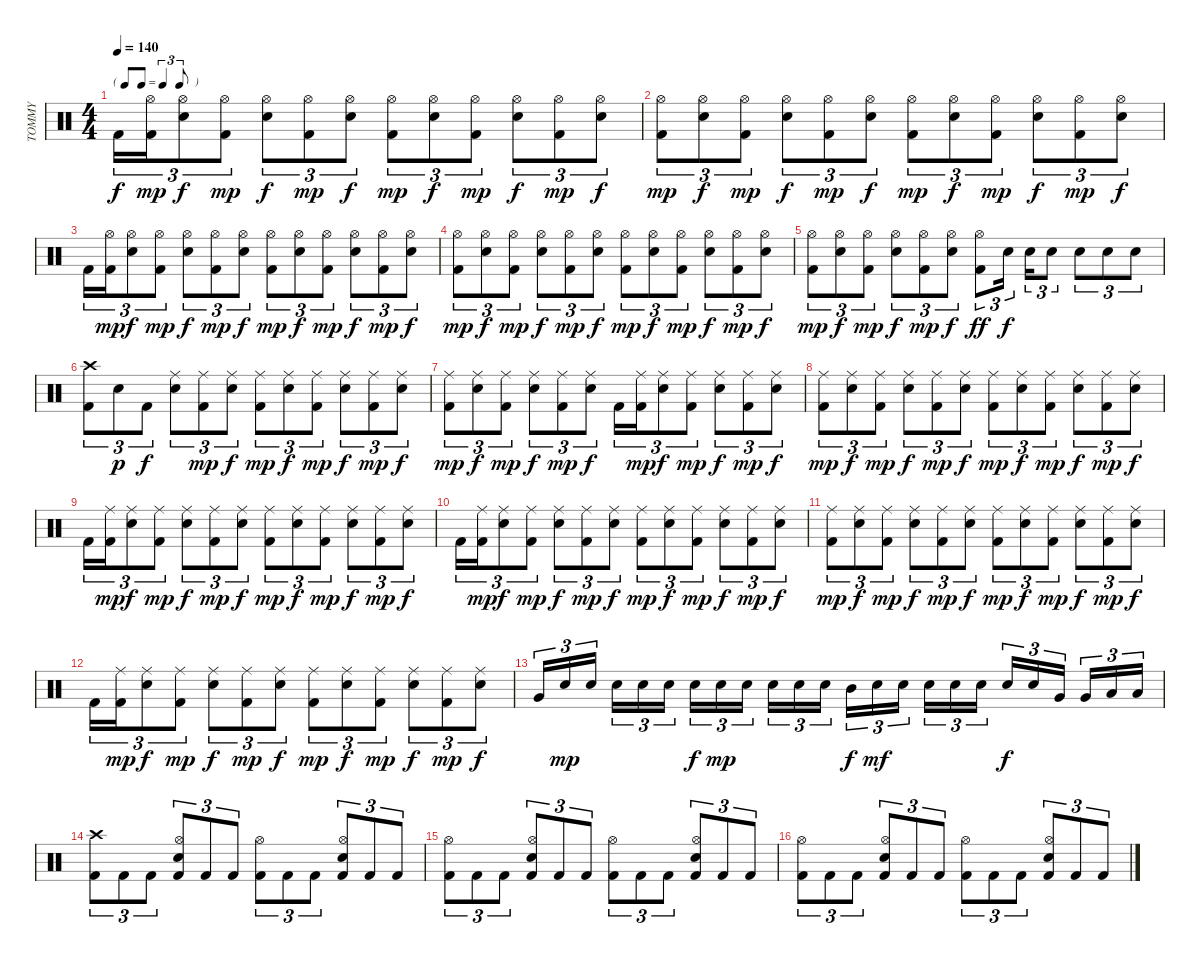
\track ("TOMMY" "TOMMY") {instrument percussion}
\staff {score}
\articulation defaults
\ts (4 4)
\tf triplet8th
\tempo 140
\clef neutral
\ks c "Kick (hit) 2".16{tu (3 2) dy f}
("Kick (hit) 2" "Hi-Hat (open)").16{tu (3 2) dy mp} ("Snare (hit) 2" "Hi-Hat (open)").8{tu (3 2) dy f} ("Kick (hit) 2" "Hi-Hat (open)").8{tu (3 2) dy mp} ("Snare (hit) 2" "Hi-Hat (open)").8{tu (3 2) dy f} ("Kick (hit) 2" "Hi-Hat (open)").8{tu (3 2) dy mp} ("Snare (hit) 2" "Hi-Hat (open)").8{tu (3 2) dy f} ("Kick (hit) 2" "Hi-Hat (open)").8{tu (3 2) dy mp} ("Snare (hit) 2" "Hi-Hat (open)").8{tu (3 2) dy f} ("Kick (hit) 2" "Hi-Hat (open)").8{tu (3 2) dy mp} ("Snare (hit) 2" "Hi-Hat (open)").8{tu (3 2) dy f} ("Kick (hit) 2" "Hi-Hat (open)").8{tu (3 2) dy mp} ("Snare (hit) 2" "Hi-Hat (open)").8{tu (3 2) dy f} |
("Kick (hit) 2" "Hi-Hat (open)").8{tu (3 2) dy mp} ("Snare (hit) 2" "Hi-Hat (open)").8{tu (3 2) dy f} ("Kick (hit) 2" "Hi-Hat (open)").8{tu (3 2) dy mp} ("Snare (hit) 2" "Hi-Hat (open)").8{tu (3 2) dy f} ("Kick (hit) 2" "Hi-Hat (open)").8{tu (3 2) dy mp} ("Snare (hit) 2" "Hi-Hat (open)").8{tu (3 2) dy f} ("Kick (hit) 2" "Hi-Hat (open)").8{tu (3 2) dy mp} ("Snare (hit) 2" "Hi-Hat (open)").8{tu (3 2) dy f} ("Kick (hit) 2" "Hi-Hat (open)").8{tu (3 2) dy mp} ("Snare (hit) 2" "Hi-Hat (open)").8{tu (3 2) dy f} ("Kick (hit) 2" "Hi-Hat (open)").8{tu (3 2) dy mp} ("Snare (hit) 2" "Hi-Hat (open)").8{tu (3 2) dy f} |
"Kick (hit) 2".16{tu (3 2)} ("Kick (hit) 2" "Hi-Hat (open)").16{tu (3 2) dy mp} ("Snare (hit) 2" "Hi-Hat (open)").8{tu (3 2) dy f} ("Kick (hit) 2" "Hi-Hat (open)").8{tu (3 2) dy mp} ("Snare (hit) 2" "Hi-Hat (open)").8{tu (3 2) dy f} ("Kick (hit) 2" "Hi-Hat (open)").8{tu (3 2) dy mp} ("Snare (hit) 2" "Hi-Hat (open)").8{tu (3 2) dy f} ("Kick (hit) 2" "Hi-Hat (open)").8{tu (3 2) dy mp} ("Snare (hit) 2" "Hi-Hat (open)").8{tu (3 2) dy f} ("Kick (hit) 2" "Hi-Hat (open)").8{tu (3 2) dy mp} ("Snare (hit) 2" "Hi-Hat (open)").8{tu (3 2) dy f} ("Kick (hit) 2" "Hi-Hat (open)").8{tu (3 2) dy mp} ("Snare (hit) 2" "Hi-Hat (open)").8{tu (3 2) dy f} |
("Kick (hit) 2" "Hi-Hat (open)").8{tu (3 2) dy mp} ("Snare (hit) 2" "Hi-Hat (open)").8{tu (3 2) dy f} ("Kick (hit) 2" "Hi-Hat (open)").8{tu (3 2) dy mp} ("Snare (hit) 2" "Hi-Hat (open)").8{tu (3 2) dy f} ("Kick (hit) 2" "Hi-Hat (open)").8{tu (3 2) dy mp} ("Snare (hit) 2" "Hi-Hat (open)").8{tu (3 2) dy f} ("Kick (hit) 2" "Hi-Hat (open)").8{tu (3 2) dy mp} ("Snare (hit) 2" "Hi-Hat (open)").8{tu (3 2) dy f} ("Kick (hit) 2" "Hi-Hat (open)").8{tu (3 2) dy mp} ("Snare (hit) 2" "Hi-Hat (open)").8{tu (3 2) dy f} ("Kick (hit) 2" "Hi-Hat (open)").8{tu (3 2) dy mp} ("Snare (hit) 2" "Hi-Hat (open)").8{tu (3 2) dy f} |
("Kick (hit) 2" "Hi-Hat (open)").8{tu (3 2) dy mp} ("Snare (hit) 2" "Hi-Hat (open)").8{tu (3 2) dy f} ("Kick (hit) 2" "Hi-Hat (open)").8{tu (3 2) dy mp} ("Snare (hit) 2" "Hi-Hat (open)").8{tu (3 2) dy f} ("Kick (hit) 2" "Hi-Hat (open)").8{tu (3 2) dy mp} ("Snare (hit) 2" "Hi-Hat (open)").8{tu (3 2) dy f} ("Kick (hit) 2" "Hi-Hat (open)").8{tu (3 2) dy ff} "Snare (hit) 2".16{tu (3 2) dy f} "Snare (hit) 2".16{tu (3 2)} "Snare (hit) 2".8{tu (3 2)} "Snare (hit) 2".8{tu (3 2)} "Snare (hit) 2".8{tu (3 2)} "Snare (hit) 2".8{tu (3 2)} |
("Kick (hit) 2" "Crash high (hit)").8{tu (3 2)} "Snare (hit) 2".8{tu (3 2) dy p} "Kick (hit) 2".8{tu (3 2) dy f} ("Snare (hit) 2" "Ride (middle)").8{tu (3 2)} ("Kick (hit) 2" "Ride (middle)").8{tu (3 2) dy mp} ("Snare (hit) 2" "Ride (middle)").8{tu (3 2) dy f} ("Kick (hit) 2" "Ride (middle)").8{tu (3 2) dy mp} ("Snare (hit) 2" "Ride (middle)").8{tu (3 2) dy f} ("Kick (hit) 2" "Ride (middle)").8{tu (3 2) dy mp} ("Snare (hit) 2" "Ride (middle)").8{tu (3 2) dy f} ("Kick (hit) 2" "Ride (middle)").8{tu (3 2) dy mp} ("Snare (hit) 2" "Ride (middle)").8{tu (3 2) dy f} |
("Kick (hit) 2" "Ride (middle)").8{tu (3 2) dy mp} ("Snare (hit) 2" "Ride (middle)").8{tu (3 2) dy f} ("Kick (hit) 2" "Ride (middle)").8{tu (3 2) dy mp} ("Snare (hit) 2" "Ride (middle)").8{tu (3 2) dy f} ("Kick (hit) 2" "Ride (middle)").8{tu (3 2) dy mp} ("Snare (hit) 2" "Ride (middle)").8{tu (3 2) dy f} "Kick (hit) 2".16{tu (3 2)} ("Kick (hit) 2" "Ride (middle)").16{tu (3 2) dy mp} ("Snare (hit) 2" "Ride (middle)").8{tu (3 2) dy f} ("Kick (hit) 2" "Ride (middle)").8{tu (3 2) dy mp} ("Snare (hit) 2" "Ride (middle)").8{tu (3 2) dy f} ("Kick (hit) 2" "Ride (middle)").8{tu (3 2) dy mp} ("Snare (hit) 2" "Ride (middle)").8{tu (3 2) dy f} |
("Kick (hit) 2" "Ride (middle)").8{tu (3 2) dy mp} ("Snare (hit) 2" "Ride (middle)").8{tu (3 2) dy f} ("Kick (hit) 2" "Ride (middle)").8{tu (3 2) dy mp} ("Snare (hit) 2" "Ride (middle)").8{tu (3 2) dy f} ("Kick (hit) 2" "Ride (middle)").8{tu (3 2) dy mp} ("Snare (hit) 2" "Ride (middle)").8{tu (3 2) dy f} ("Kick (hit) 2" "Ride (middle)").8{tu (3 2) dy mp} ("Snare (hit) 2" "Ride (middle)").8{tu (3 2) dy f} ("Kick (hit) 2" "Ride (middle)").8{tu (3 2) dy mp} ("Snare (hit) 2" "Ride (middle)").8{tu (3 2) dy f} ("Kick (hit) 2" "Ride (middle)").8{tu (3 2) dy mp} ("Snare (hit) 2" "Ride (middle)").8{tu (3 2) dy f} |
"Kick (hit) 2".16{tu (3 2)} ("Kick (hit) 2" "Ride (middle)").16{tu (3 2) dy mp} ("Snare (hit) 2" "Ride (middle)").8{tu (3 2) dy f} ("Kick (hit) 2" "Ride (middle)").8{tu (3 2) dy mp} ("Snare (hit) 2" "Ride (middle)").8{tu (3 2) dy f} ("Kick (hit) 2" "Ride (middle)").8{tu (3 2) dy mp} ("Snare (hit) 2" "Ride (middle)").8{tu (3 2) dy f} ("Kick (hit) 2" "Ride (middle)").8{tu (3 2) dy mp} ("Snare (hit) 2" "Ride (middle)").8{tu (3 2) dy f} ("Kick (hit) 2" "Ride (middle)").8{tu (3 2) dy mp} ("Snare (hit) 2" "Ride (middle)").8{tu (3 2) dy f} ("Kick (hit) 2" "Ride (middle)").8{tu (3 2) dy mp} ("Snare (hit) 2" "Ride (middle)").8{tu (3 2) dy f} |
"Kick (hit) 2".16{tu (3 2)} ("Kick (hit) 2" "Ride (middle)").16{tu (3 2) dy mp} ("Snare (hit) 2" "Ride (middle)").8{tu (3 2) dy f} ("Kick (hit) 2" "Ride (middle)").8{tu (3 2) dy mp} ("Snare (hit) 2" "Ride (middle)").8{tu (3 2) dy f} ("Kick (hit) 2" "Ride (middle)").8{tu (3 2) dy mp} ("Snare (hit) 2" "Ride (middle)").8{tu (3 2) dy f} ("Kick (hit) 2" "Ride (middle)").8{tu (3 2) dy mp} ("Snare (hit) 2" "Ride (middle)").8{tu (3 2) dy f} ("Kick (hit) 2" "Ride (middle)").8{tu (3 2) dy mp} ("Snare (hit) 2" "Ride (middle)").8{tu (3 2) dy f} ("Kick (hit) 2" "Ride (middle)").8{tu (3 2) dy mp} ("Snare (hit) 2" "Ride (middle)").8{tu (3 2) dy f} |
("Kick (hit) 2" "Ride (middle)").8{tu (3 2) dy mp} ("Snare (hit) 2" "Ride (middle)").8{tu (3 2) dy f} ("Kick (hit) 2" "Ride (middle)").8{tu (3 2) dy mp} ("Snare (hit) 2" "Ride (middle)").8{tu (3 2) dy f} ("Kick (hit) 2" "Ride (middle)").8{tu (3 2) dy mp} ("Snare (hit) 2" "Ride (middle)").8{tu (3 2) dy f} ("Kick (hit) 2" "Ride (middle)").8{tu (3 2) dy mp} ("Snare (hit) 2" "Ride (middle)").8{tu (3 2) dy f} ("Kick (hit) 2" "Ride (middle)").8{tu (3 2) dy mp} ("Snare (hit) 2" "Ride (middle)").8{tu (3 2) dy f} ("Kick (hit) 2" "Ride (middle)").8{tu (3 2) dy mp} ("Snare (hit) 2" "Ride (middle)").8{tu (3 2) dy f} |
"Kick (hit) 2".16{tu (3 2)} ("Kick (hit) 2" "Ride (middle)").16{tu (3 2) dy mp} ("Snare (hit) 2" "Ride (middle)").8{tu (3 2) dy f} ("Kick (hit) 2" "Ride (middle)").8{tu (3 2) dy mp} ("Snare (hit) 2" "Ride (middle)").8{tu (3 2) dy f} ("Kick (hit) 2" "Ride (middle)").8{tu (3 2) dy mp} ("Snare (hit) 2" "Ride (middle)").8{tu (3 2) dy f} ("Kick (hit) 2" "Ride (middle)").8{tu (3 2) dy mp} ("Snare (hit) 2" "Ride (middle)").8{tu (3 2) dy f} ("Kick (hit) 2" "Ride (middle)").8{tu (3 2) dy mp} ("Snare (hit) 2" "Ride (middle)").8{tu (3 2) dy f} ("Kick (hit) 2" "Ride (middle)").8{tu (3 2) dy mp} ("Snare (hit) 2" "Ride (middle)").8{tu (3 2) dy f} |
"Very Low Tom (hit)".16{tu (3 2)} "Snare (hit) 2".16{tu (3 2) dy mp} "Snare (hit) 2".16{tu (3 2)} "Snare (hit) 2".16{tu (3 2)} "Snare (hit) 2".16{tu (3 2)} "Snare (hit) 2".16{tu (3 2)} "Snare (hit) 2".16{tu (3 2) dy f} "Snare (hit) 2".16{tu (3 2) dy mp} "Snare (hit) 2".16{tu (3 2)} "Snare (hit) 2".16{tu (3 2)} "Snare (hit) 2".16{tu (3 2)} "Snare (hit) 2".16{tu (3 2)} "Mid Tom (hit)".16{tu (3 2) dy f} "Snare (hit) 2".16{tu (3 2) dy mf} "Snare (hit) 2".16{tu (3 2)} "Snare (hit) 2".16{tu (3 2)} "Snare (hit) 2".16{tu (3 2)} "Snare (hit) 2".16{tu (3 2)} "Snare (hit) 2".16{tu (3 2) dy f} "Snare (hit) 2".16{tu (3 2)} "Very Low Tom (hit)".16{tu (3 2)} "Very Low Tom (hit)".16{tu (3 2)} "Low Floor Tom (hit)".16{tu (3 2)} "Low Floor Tom (hit)".16{tu (3 2)} |
("Kick (hit) 2" "Crash high (hit)").8{tu (3 2)} "Kick (hit) 2".8{tu (3 2)} "Kick (hit) 2".8{tu (3 2)} ("Snare (hit) 2" "Kick (hit) 2" "Hi-Hat (open)").8{tu (3 2)} "Kick (hit) 2".8{tu (3 2)} "Kick (hit) 2".8{tu (3 2)} ("Kick (hit) 2" "Hi-Hat (open)").8{tu (3 2)} "Kick (hit) 2".8{tu (3 2)} "Kick (hit) 2".8{tu (3 2)} ("Snare (hit) 2" "Kick (hit) 2" "Hi-Hat (open)").8{tu (3 2)} "Kick (hit) 2".8{tu (3 2)} "Kick (hit) 2".8{tu (3 2)} |
("Kick (hit) 2" "Hi-Hat (open)").8{tu (3 2)} "Kick (hit) 2".8{tu (3 2)} "Kick (hit) 2".8{tu (3 2)} ("Snare (hit) 2" "Kick (hit) 2" "Hi-Hat (open)").8{tu (3 2)} "Kick (hit) 2".8{tu (3 2)} "Kick (hit) 2".8{tu (3 2)} ("Kick (hit) 2" "Hi-Hat (open)").8{tu (3 2)} "Kick (hit) 2".8{tu (3 2)} "Kick (hit) 2".8{tu (3 2)} ("Snare (hit) 2" "Kick (hit) 2" "Hi-Hat (open)").8{tu (3 2)} "Kick (hit) 2".8{tu (3 2)} "Kick (hit) 2".8{tu (3 2)} |
("Kick (hit) 2" "Hi-Hat (open)").8{tu (3 2)} "Kick (hit) 2".8{tu (3 2)} "Kick (hit) 2".8{tu (3 2)} ("Snare (hit) 2" "Kick (hit) 2" "Hi-Hat (open)").8{tu (3 2)} "Kick (hit) 2".8{tu (3 2)} "Kick (hit) 2".8{tu (3 2)} ("Kick (hit) 2" "Hi-Hat (open)").8{tu (3 2)} "Kick (hit) 2".8{tu (3 2)} "Kick (hit) 2".8{tu (3 2)} ("Snare (hit) 2" "Kick (hit) 2" "Hi-Hat (open)").8{tu (3 2)} "Kick (hit) 2".8{tu (3 2)} "Kick (hit) 2".8{tu (3 2)}
